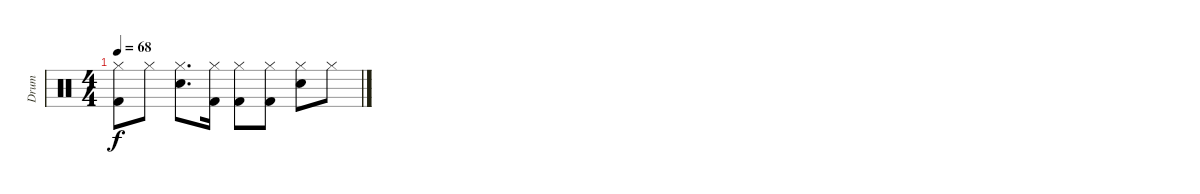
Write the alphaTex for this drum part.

\track ("Drum" "Drum") {instrument percussion}
\staff {score}
\articulation defaults
\ts (4 4)
\tempo 68
\clef neutral
\ks c
("Hi-Hat (closed)" "Kick (hit) 2").8{dy f} "Hi-Hat (closed)".8 ("Hi-Hat (closed)" "Electric Snare (hit)").8{d} ("Hi-Hat (closed)" "Kick (hit) 2").16 ("Hi-Hat (closed)" "Kick (hit) 2").8 ("Hi-Hat (closed)" "Kick (hit) 2").8 ("Hi-Hat (closed)" "Electric Snare (hit)").8 "Hi-Hat (closed)".8
